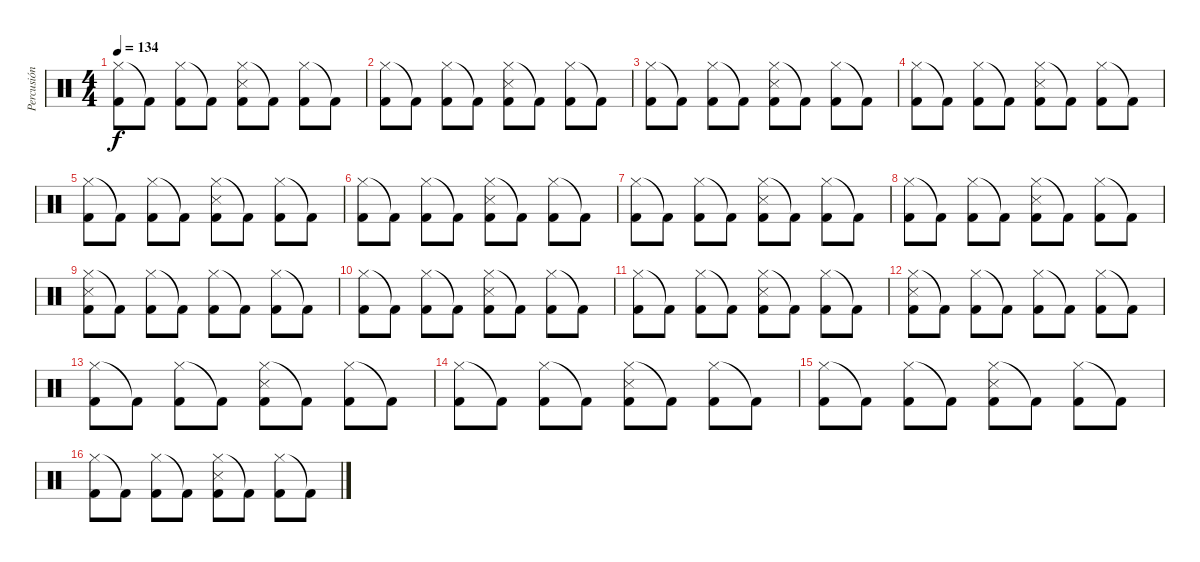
\track ("Percusión" "Percusión") {instrument percussion}
\staff {score}
\articulation defaults
\ts (4 4)
\tempo 134
\clef neutral
\ks c
("Hi-Hat (closed)" "Kick (hit) 2").8{dy f} "Kick (hit) 2"{t}.8 ("Hi-Hat (closed)" "Kick (hit) 2").8 "Kick (hit) 2"{t}.8 ("Hi-Hat (closed)" "Snare (side stick) 3" "Kick (hit) 2").8 "Kick (hit) 2"{t}.8 ("Hi-Hat (closed)" "Kick (hit) 2").8 "Kick (hit) 2"{t}.8 |
("Hi-Hat (closed)" "Kick (hit) 2").8 "Kick (hit) 2"{t}.8 ("Hi-Hat (closed)" "Kick (hit) 2").8 "Kick (hit) 2"{t}.8 ("Hi-Hat (closed)" "Snare (side stick) 3" "Kick (hit) 2").8 "Kick (hit) 2"{t}.8 ("Hi-Hat (closed)" "Kick (hit) 2").8 "Kick (hit) 2"{t}.8 |
("Hi-Hat (closed)" "Kick (hit) 2").8 "Kick (hit) 2"{t}.8 ("Hi-Hat (closed)" "Kick (hit) 2").8 "Kick (hit) 2"{t}.8 ("Hi-Hat (closed)" "Snare (side stick) 3" "Kick (hit) 2").8 "Kick (hit) 2"{t}.8 ("Hi-Hat (closed)" "Kick (hit) 2").8 "Kick (hit) 2"{t}.8 |
("Hi-Hat (closed)" "Kick (hit) 2").8 "Kick (hit) 2"{t}.8 ("Hi-Hat (closed)" "Kick (hit) 2").8 "Kick (hit) 2"{t}.8 ("Hi-Hat (closed)" "Snare (side stick) 3" "Kick (hit) 2").8 "Kick (hit) 2"{t}.8 ("Hi-Hat (closed)" "Kick (hit) 2").8 "Kick (hit) 2"{t}.8 |
("Hi-Hat (closed)" "Kick (hit) 2").8 "Kick (hit) 2"{t}.8 ("Hi-Hat (closed)" "Kick (hit) 2").8 "Kick (hit) 2"{t}.8 ("Hi-Hat (closed)" "Snare (side stick) 3" "Kick (hit) 2").8 "Kick (hit) 2"{t}.8 ("Hi-Hat (closed)" "Kick (hit) 2").8 "Kick (hit) 2"{t}.8 |
("Hi-Hat (closed)" "Kick (hit) 2").8 "Kick (hit) 2"{t}.8 ("Hi-Hat (closed)" "Kick (hit) 2").8 "Kick (hit) 2"{t}.8 ("Hi-Hat (closed)" "Snare (side stick) 3" "Kick (hit) 2").8 "Kick (hit) 2"{t}.8 ("Hi-Hat (closed)" "Kick (hit) 2").8 "Kick (hit) 2"{t}.8 |
("Hi-Hat (closed)" "Kick (hit) 2").8 "Kick (hit) 2"{t}.8 ("Hi-Hat (closed)" "Kick (hit) 2").8 "Kick (hit) 2"{t}.8 ("Hi-Hat (closed)" "Snare (side stick) 3" "Kick (hit) 2").8 "Kick (hit) 2"{t}.8 ("Hi-Hat (closed)" "Kick (hit) 2").8 "Kick (hit) 2"{t}.8 |
("Hi-Hat (closed)" "Kick (hit) 2").8 "Kick (hit) 2"{t}.8 ("Hi-Hat (closed)" "Kick (hit) 2").8 "Kick (hit) 2"{t}.8 ("Hi-Hat (closed)" "Snare (side stick) 3" "Kick (hit) 2").8 "Kick (hit) 2"{t}.8 ("Hi-Hat (closed)" "Kick (hit) 2").8 "Kick (hit) 2"{t}.8 |
("Hi-Hat (closed)" "Snare (side stick) 3" "Kick (hit) 2").8 "Kick (hit) 2"{t}.8 ("Hi-Hat (closed)" "Kick (hit) 2").8 "Kick (hit) 2"{t}.8 ("Hi-Hat (closed)" "Kick (hit) 2").8 "Kick (hit) 2"{t}.8 ("Hi-Hat (closed)" "Kick (hit) 2").8 "Kick (hit) 2"{t}.8 |
("Hi-Hat (closed)" "Kick (hit) 2").8 "Kick (hit) 2"{t}.8 ("Hi-Hat (closed)" "Kick (hit) 2").8 "Kick (hit) 2"{t}.8 ("Hi-Hat (closed)" "Snare (side stick) 3" "Kick (hit) 2").8 "Kick (hit) 2"{t}.8 ("Hi-Hat (closed)" "Kick (hit) 2").8 "Kick (hit) 2"{t}.8 |
("Hi-Hat (closed)" "Kick (hit) 2").8 "Kick (hit) 2"{t}.8 ("Hi-Hat (closed)" "Kick (hit) 2").8 "Kick (hit) 2"{t}.8 ("Hi-Hat (closed)" "Snare (side stick) 3" "Kick (hit) 2").8 "Kick (hit) 2"{t}.8 ("Hi-Hat (closed)" "Kick (hit) 2").8 "Kick (hit) 2"{t}.8 |
("Hi-Hat (closed)" "Snare (side stick) 3" "Kick (hit) 2").8 "Kick (hit) 2"{t}.8 ("Hi-Hat (closed)" "Kick (hit) 2").8 "Kick (hit) 2"{t}.8 ("Hi-Hat (closed)" "Kick (hit) 2").8 "Kick (hit) 2"{t}.8 ("Hi-Hat (closed)" "Kick (hit) 2").8 "Kick (hit) 2"{t}.8 |
("Hi-Hat (closed)" "Kick (hit) 2").8 "Kick (hit) 2"{t}.8 ("Hi-Hat (closed)" "Kick (hit) 2").8 "Kick (hit) 2"{t}.8 ("Hi-Hat (closed)" "Snare (side stick) 3" "Kick (hit) 2").8 "Kick (hit) 2"{t}.8 ("Hi-Hat (closed)" "Kick (hit) 2").8 "Kick (hit) 2"{t}.8 |
("Hi-Hat (closed)" "Kick (hit) 2").8 "Kick (hit) 2"{t}.8 ("Hi-Hat (closed)" "Kick (hit) 2").8 "Kick (hit) 2"{t}.8 ("Hi-Hat (closed)" "Snare (side stick) 3" "Kick (hit) 2").8 "Kick (hit) 2"{t}.8 ("Hi-Hat (closed)" "Kick (hit) 2").8 "Kick (hit) 2"{t}.8 |
("Hi-Hat (closed)" "Kick (hit) 2").8 "Kick (hit) 2"{t}.8 ("Hi-Hat (closed)" "Kick (hit) 2").8 "Kick (hit) 2"{t}.8 ("Hi-Hat (closed)" "Snare (side stick) 3" "Kick (hit) 2").8 "Kick (hit) 2"{t}.8 ("Hi-Hat (closed)" "Kick (hit) 2").8 "Kick (hit) 2"{t}.8 |
("Hi-Hat (closed)" "Kick (hit) 2").8 "Kick (hit) 2"{t}.8 ("Hi-Hat (closed)" "Kick (hit) 2").8 "Kick (hit) 2"{t}.8 ("Hi-Hat (closed)" "Snare (side stick) 3" "Kick (hit) 2").8 "Kick (hit) 2"{t}.8 ("Hi-Hat (closed)" "Kick (hit) 2").8 "Kick (hit) 2"{t}.8
